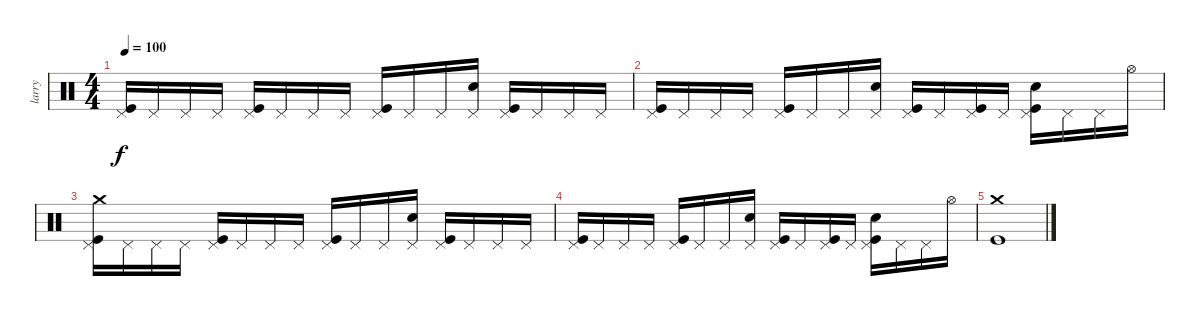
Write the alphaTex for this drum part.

\track ("larry" "larry") {instrument percussion}
\staff {score}
\articulation defaults
\ts (4 4)
\tempo 100
\clef neutral
\ks c
("Pedal Hi-Hat (hit)" "Kick (hit)").16{dy f} "Pedal Hi-Hat (hit)".16 "Pedal Hi-Hat (hit)".16 "Pedal Hi-Hat (hit)".16 ("Pedal Hi-Hat (hit)" "Kick (hit)").16 "Pedal Hi-Hat (hit)".16 "Pedal Hi-Hat (hit)".16 "Pedal Hi-Hat (hit)".16 ("Pedal Hi-Hat (hit)" "Kick (hit)").16 "Pedal Hi-Hat (hit)".16 "Pedal Hi-Hat (hit)".16 ("Pedal Hi-Hat (hit)" "Metronome (bell)").16 ("Pedal Hi-Hat (hit)" "Kick (hit)").16 "Pedal Hi-Hat (hit)".16 "Pedal Hi-Hat (hit)".16 "Pedal Hi-Hat (hit)".16 |
("Pedal Hi-Hat (hit)" "Kick (hit)").16 "Pedal Hi-Hat (hit)".16 "Pedal Hi-Hat (hit)".16 "Pedal Hi-Hat (hit)".16 ("Pedal Hi-Hat (hit)" "Kick (hit)").16 "Pedal Hi-Hat (hit)".16 "Pedal Hi-Hat (hit)".16 ("Pedal Hi-Hat (hit)" "Metronome (bell)").16 ("Pedal Hi-Hat (hit)" "Kick (hit)").16 "Pedal Hi-Hat (hit)".16 ("Pedal Hi-Hat (hit)" "Kick (hit)").16 "Pedal Hi-Hat (hit)".16 ("Pedal Hi-Hat (hit)" "Kick (hit)" "Metronome (bell)").16 "Pedal Hi-Hat (hit)".16 "Pedal Hi-Hat (hit)".16 "Hi-Hat (open)".16 |
("Pedal Hi-Hat (hit)" "Crash medium (hit)" "Kick (hit)").16 "Pedal Hi-Hat (hit)".16 "Pedal Hi-Hat (hit)".16 "Pedal Hi-Hat (hit)".16 ("Pedal Hi-Hat (hit)" "Kick (hit)").16 "Pedal Hi-Hat (hit)".16 "Pedal Hi-Hat (hit)".16 "Pedal Hi-Hat (hit)".16 ("Pedal Hi-Hat (hit)" "Kick (hit)").16 "Pedal Hi-Hat (hit)".16 "Pedal Hi-Hat (hit)".16 ("Pedal Hi-Hat (hit)" "Metronome (bell)").16 ("Pedal Hi-Hat (hit)" "Kick (hit)").16 "Pedal Hi-Hat (hit)".16 "Pedal Hi-Hat (hit)".16 "Pedal Hi-Hat (hit)".16 |
("Pedal Hi-Hat (hit)" "Kick (hit)").16 "Pedal Hi-Hat (hit)".16 "Pedal Hi-Hat (hit)".16 "Pedal Hi-Hat (hit)".16 ("Pedal Hi-Hat (hit)" "Kick (hit)").16 "Pedal Hi-Hat (hit)".16 "Pedal Hi-Hat (hit)".16 ("Pedal Hi-Hat (hit)" "Metronome (bell)").16 ("Pedal Hi-Hat (hit)" "Kick (hit)").16 "Pedal Hi-Hat (hit)".16 ("Pedal Hi-Hat (hit)" "Kick (hit)").16 "Pedal Hi-Hat (hit)".16 ("Pedal Hi-Hat (hit)" "Kick (hit)" "Metronome (bell)").16 "Pedal Hi-Hat (hit)".16 "Pedal Hi-Hat (hit)".16 "Hi-Hat (open)".16 |
("Crash medium (hit)" "Kick (hit)").1
